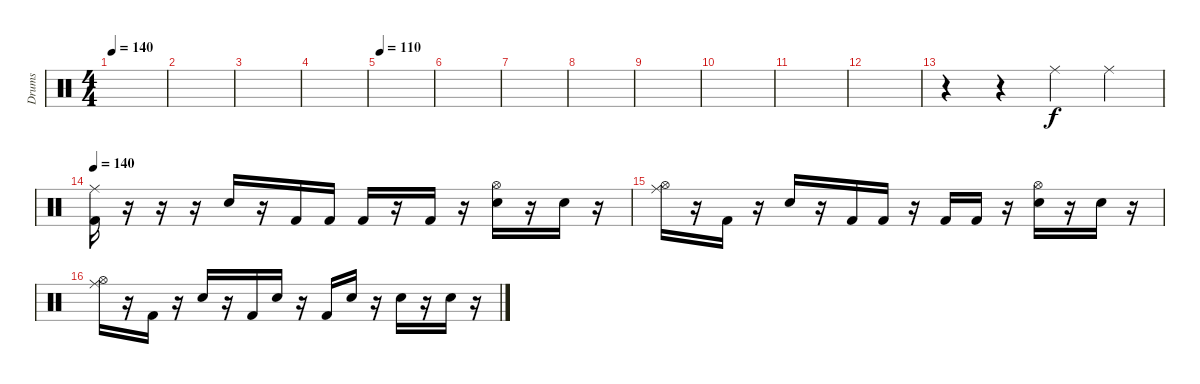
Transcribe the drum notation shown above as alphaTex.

\track ("Drums" "Drums") {instrument percussion}
\staff {score}
\articulation defaults
\ts (4 4)
\tempo 140
\clef neutral
\ks c
|
|
|
|
\tempo 110
|
|
|
|
|
|
|
|
r.4 r.4 "Ride (middle)".4 "Ride (middle)".4 |
\tempo 140
("Ride (middle)" "Kick (hit) 2").16 r.16 r.16 r.16 "Electric Snare (hit)".16 r.16 "Kick (hit) 2".16 "Kick (hit) 2".16 "Kick (hit) 2".16 r.16 "Kick (hit) 2".16 r.16 ("Hi-Hat (open)" "Electric Snare (hit)").16 r.16 "Electric Snare (hit)".16 r.16 |
("Ride (middle)" "Hi-Hat (open)").16 r.16 "Kick (hit) 2".16 r.16 "Electric Snare (hit)".16 r.16 "Kick (hit) 2".16 "Kick (hit) 2".16 r.16 "Kick (hit) 2".16 "Kick (hit) 2".16 r.16 ("Hi-Hat (open)" "Electric Snare (hit)").16 r.16 "Electric Snare (hit)".16 r.16 |
("Ride (middle)" "Hi-Hat (open)").16 r.16 "Kick (hit) 2".16 r.16 "Electric Snare (hit)".16 r.16 "Kick (hit) 2".16 "Electric Snare (hit)".16 r.16 "Kick (hit) 2".16 "Electric Snare (hit)".16 r.16 "Electric Snare (hit)".16 r.16 "Electric Snare (hit)".16 r.16
